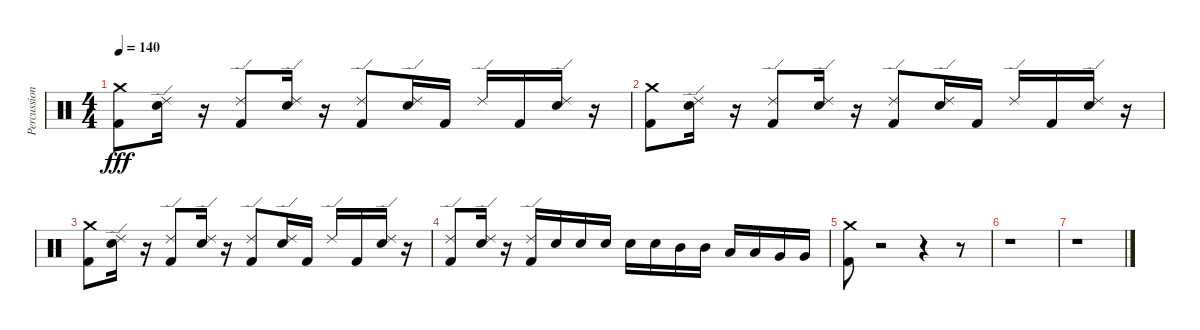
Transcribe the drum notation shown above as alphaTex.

\track ("Percussion" "Percussion") {instrument percussion}
\staff {score}
\articulation defaults
\ts (4 4)
\tempo 140
\clef neutral
\ks c
("Kick (hit) 2" "Crash medium (hit)").8{dy fff} ("Snare (hit) 2" "Ride (edge) 2").16 r.16 ("Kick (hit) 2" "Ride (edge) 2").8 ("Snare (hit) 2" "Ride (edge) 2").16 r.16 ("Kick (hit) 2" "Ride (edge) 2").8 ("Snare (hit) 2" "Ride (edge) 2").16 "Kick (hit) 2".16 "Ride (edge) 2".16 "Kick (hit) 2".16 ("Snare (hit) 2" "Ride (edge) 2").16 r.16 |
("Kick (hit) 2" "Crash medium (hit)").8 ("Snare (hit) 2" "Ride (edge) 2").16 r.16 ("Kick (hit) 2" "Ride (edge) 2").8 ("Snare (hit) 2" "Ride (edge) 2").16 r.16 ("Kick (hit) 2" "Ride (edge) 2").8 ("Snare (hit) 2" "Ride (edge) 2").16 "Kick (hit) 2".16 "Ride (edge) 2".16 "Kick (hit) 2".16 ("Snare (hit) 2" "Ride (edge) 2").16 r.16 |
("Kick (hit) 2" "Crash medium (hit)").8 ("Snare (hit) 2" "Ride (edge) 2").16 r.16 ("Kick (hit) 2" "Ride (edge) 2").8 ("Snare (hit) 2" "Ride (edge) 2").16 r.16 ("Kick (hit) 2" "Ride (edge) 2").8 ("Snare (hit) 2" "Ride (edge) 2").16 "Kick (hit) 2".16 "Ride (edge) 2".16 "Kick (hit) 2".16 ("Snare (hit) 2" "Ride (edge) 2").16 r.16 |
("Kick (hit) 2" "Ride (edge) 2").8 ("Snare (hit) 2" "Ride (edge) 2").16 r.16 ("Kick (hit) 2" "Ride (edge) 2").16 "Snare (hit) 2".16 "Snare (hit) 2".16 "Snare (hit) 2".16 "Snare (hit) 2".16 "Snare (hit) 2".16 "Mid Tom (hit)".16 "Mid Tom (hit)".16 "Low Tom (hit)".16 "Low Tom (hit)".16 "Very Low Tom (hit)".16 "Very Low Tom (hit)".16 |
("Kick (hit) 2" "Crash medium (hit)").8 r.2 r.4 r.8 |
r.1 |
r.1
